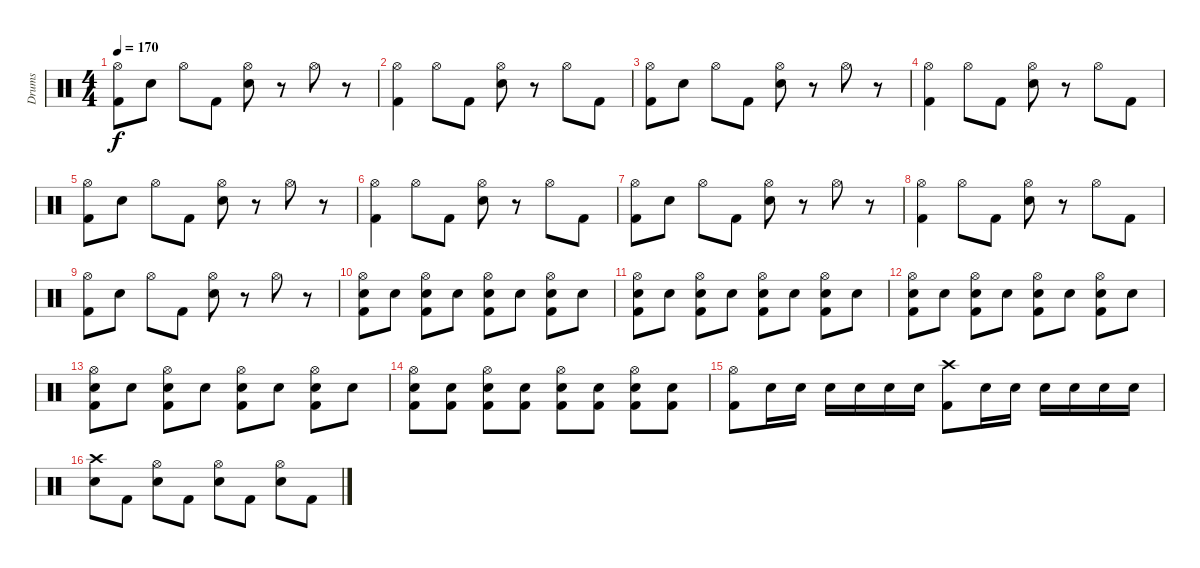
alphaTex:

\track ("Drums" "Drums") {instrument percussion}
\staff {score}
\articulation defaults
\ts (4 4)
\tempo 170
\clef neutral
\ks c
("Hi-Hat (open)" "Kick (hit) 2").8{dy f} "Electric Snare (hit)".8 "Hi-Hat (open)".8 "Kick (hit) 2".8 ("Hi-Hat (open)" "Electric Snare (hit)").8 r.8 "Hi-Hat (open)".8 r.8 |
("Hi-Hat (open)" "Kick (hit) 2").4 "Hi-Hat (open)".8 "Kick (hit) 2".8 ("Hi-Hat (open)" "Electric Snare (hit)").8 r.8 "Hi-Hat (open)".8 "Kick (hit) 2".8 |
("Hi-Hat (open)" "Kick (hit) 2").8 "Electric Snare (hit)".8 "Hi-Hat (open)".8 "Kick (hit) 2".8 ("Hi-Hat (open)" "Electric Snare (hit)").8 r.8 "Hi-Hat (open)".8 r.8 |
("Hi-Hat (open)" "Kick (hit) 2").4 "Hi-Hat (open)".8 "Kick (hit) 2".8 ("Hi-Hat (open)" "Electric Snare (hit)").8 r.8 "Hi-Hat (open)".8 "Kick (hit) 2".8 |
("Hi-Hat (open)" "Kick (hit) 2").8 "Electric Snare (hit)".8 "Hi-Hat (open)".8 "Kick (hit) 2".8 ("Hi-Hat (open)" "Electric Snare (hit)").8 r.8 "Hi-Hat (open)".8 r.8 |
("Hi-Hat (open)" "Kick (hit) 2").4 "Hi-Hat (open)".8 "Kick (hit) 2".8 ("Hi-Hat (open)" "Electric Snare (hit)").8 r.8 "Hi-Hat (open)".8 "Kick (hit) 2".8 |
("Hi-Hat (open)" "Kick (hit) 2").8 "Electric Snare (hit)".8 "Hi-Hat (open)".8 "Kick (hit) 2".8 ("Hi-Hat (open)" "Electric Snare (hit)").8 r.8 "Hi-Hat (open)".8 r.8 |
("Hi-Hat (open)" "Kick (hit) 2").4 "Hi-Hat (open)".8 "Kick (hit) 2".8 ("Hi-Hat (open)" "Electric Snare (hit)").8 r.8 "Hi-Hat (open)".8 "Kick (hit) 2".8 |
("Hi-Hat (open)" "Kick (hit) 2").8 "Electric Snare (hit)".8 "Hi-Hat (open)".8 "Kick (hit) 2".8 ("Hi-Hat (open)" "Electric Snare (hit)").8 r.8 "Hi-Hat (open)".8 r.8 |
("Hi-Hat (open)" "Electric Snare (hit)" "Kick (hit) 2").8 "Electric Snare (hit)".8 ("Hi-Hat (open)" "Electric Snare (hit)" "Kick (hit) 2").8 "Electric Snare (hit)".8 ("Hi-Hat (open)" "Electric Snare (hit)" "Kick (hit) 2").8 "Electric Snare (hit)".8 ("Hi-Hat (open)" "Electric Snare (hit)" "Kick (hit) 2").8 "Electric Snare (hit)".8 |
("Hi-Hat (open)" "Electric Snare (hit)" "Kick (hit) 2").8 "Electric Snare (hit)".8 ("Hi-Hat (open)" "Electric Snare (hit)" "Kick (hit) 2").8 "Electric Snare (hit)".8 ("Hi-Hat (open)" "Electric Snare (hit)" "Kick (hit) 2").8 "Electric Snare (hit)".8 ("Hi-Hat (open)" "Electric Snare (hit)" "Kick (hit) 2").8 "Electric Snare (hit)".8 |
("Hi-Hat (open)" "Electric Snare (hit)" "Kick (hit) 2").8 "Electric Snare (hit)".8 ("Hi-Hat (open)" "Electric Snare (hit)" "Kick (hit) 2").8 "Electric Snare (hit)".8 ("Hi-Hat (open)" "Electric Snare (hit)" "Kick (hit) 2").8 "Electric Snare (hit)".8 ("Hi-Hat (open)" "Electric Snare (hit)" "Kick (hit) 2").8 "Electric Snare (hit)".8 |
("Hi-Hat (open)" "Electric Snare (hit)" "Kick (hit) 2").8 "Electric Snare (hit)".8 ("Hi-Hat (open)" "Electric Snare (hit)" "Kick (hit) 2").8 "Electric Snare (hit)".8 ("Hi-Hat (open)" "Electric Snare (hit)" "Kick (hit) 2").8 "Electric Snare (hit)".8 ("Hi-Hat (open)" "Electric Snare (hit)" "Kick (hit) 2").8 "Electric Snare (hit)".8 |
("Hi-Hat (open)" "Electric Snare (hit)" "Kick (hit) 2").8 ("Electric Snare (hit)" "Kick (hit) 2").8 ("Hi-Hat (open)" "Electric Snare (hit)" "Kick (hit) 2").8 ("Electric Snare (hit)" "Kick (hit) 2").8 ("Hi-Hat (open)" "Electric Snare (hit)" "Kick (hit) 2").8 ("Electric Snare (hit)" "Kick (hit) 2").8 ("Hi-Hat (open)" "Electric Snare (hit)" "Kick (hit) 2").8 ("Electric Snare (hit)" "Kick (hit) 2").8 |
("Hi-Hat (open)" "Kick (hit) 2").8 "Electric Snare (hit)".16 "Electric Snare (hit)".16 "Electric Snare (hit)".16 "Electric Snare (hit)".16 "Electric Snare (hit)".16 "Electric Snare (hit)".16 ("Crash high (hit)" "Kick (hit) 2").8 "Electric Snare (hit)".16 "Electric Snare (hit)".16 "Electric Snare (hit)".16 "Electric Snare (hit)".16 "Electric Snare (hit)".16 "Electric Snare (hit)".16 |
("Crash high (hit)" "Electric Snare (hit)").8 "Kick (hit) 2".8 ("Hi-Hat (open)" "Electric Snare (hit)").8 "Kick (hit) 2".8 ("Hi-Hat (open)" "Electric Snare (hit)").8 "Kick (hit) 2".8 ("Hi-Hat (open)" "Electric Snare (hit)").8 "Kick (hit) 2".8
